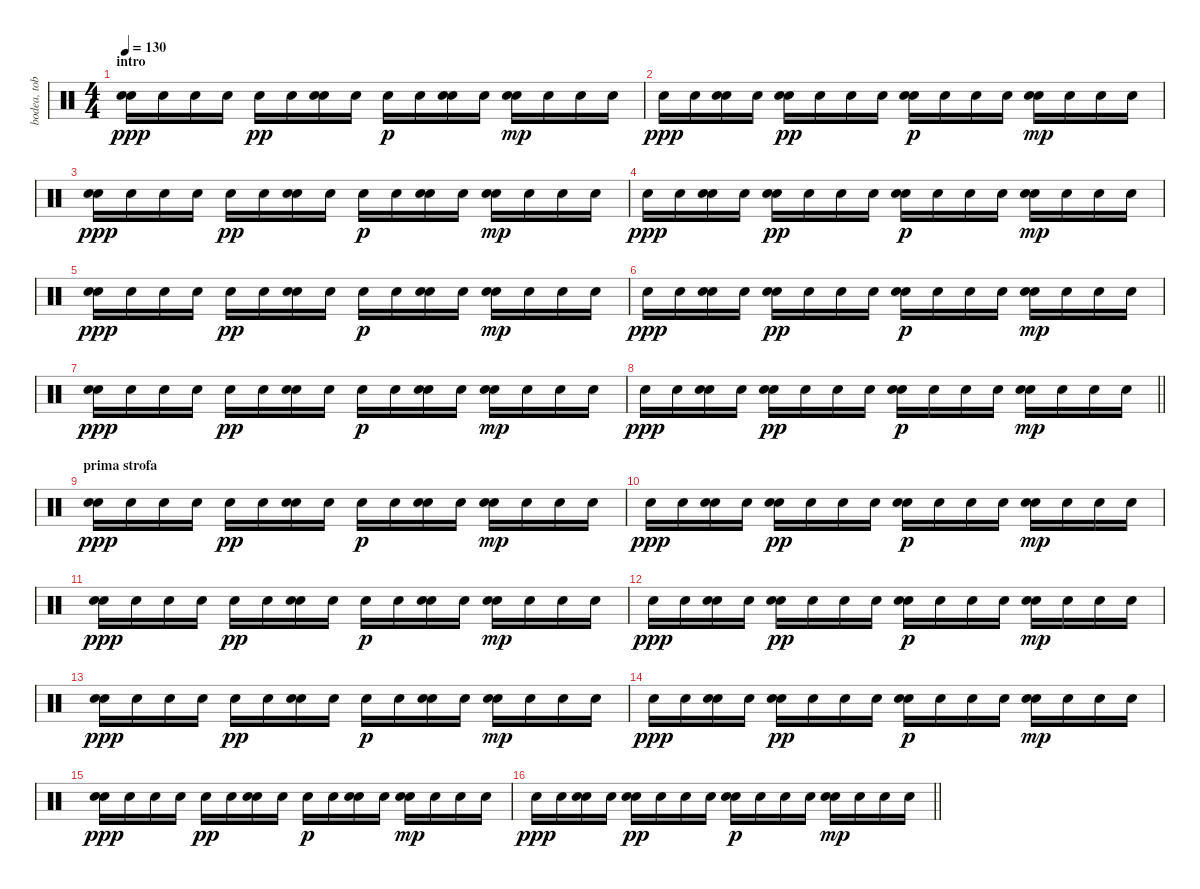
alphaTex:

\track ("bodea, tobe" "bodea, tob") {instrument percussion}
\staff {score}
\articulation defaults
\ts (4 4)
\section ("" "intro")
\tempo 130
\clef neutral
\ks c
("Electric Snare (hit)" "Electric Snare (hit)").16{dy ppp} "Electric Snare (hit)".16 "Electric Snare (hit)".16 "Electric Snare (hit)".16 "Electric Snare (hit)".16{dy pp} "Electric Snare (hit)".16 ("Electric Snare (hit)" "Electric Snare (hit)").16 "Electric Snare (hit)".16 "Electric Snare (hit)".16{dy p} "Electric Snare (hit)".16 ("Electric Snare (hit)" "Electric Snare (hit)").16 "Electric Snare (hit)".16 ("Electric Snare (hit)" "Electric Snare (hit)").16{dy mp} "Electric Snare (hit)".16 "Electric Snare (hit)".16 "Electric Snare (hit)".16 |
"Electric Snare (hit)".16{dy ppp} "Electric Snare (hit)".16 ("Electric Snare (hit)" "Electric Snare (hit)").16 "Electric Snare (hit)".16 ("Electric Snare (hit)" "Electric Snare (hit)").16{dy pp} "Electric Snare (hit)".16 "Electric Snare (hit)".16 "Electric Snare (hit)".16 ("Electric Snare (hit)" "Electric Snare (hit)").16{dy p} "Electric Snare (hit)".16 "Electric Snare (hit)".16 "Electric Snare (hit)".16 ("Electric Snare (hit)" "Electric Snare (hit)").16{dy mp} "Electric Snare (hit)".16 "Electric Snare (hit)".16 "Electric Snare (hit)".16 |
("Electric Snare (hit)" "Electric Snare (hit)").16{dy ppp} "Electric Snare (hit)".16 "Electric Snare (hit)".16 "Electric Snare (hit)".16 "Electric Snare (hit)".16{dy pp} "Electric Snare (hit)".16 ("Electric Snare (hit)" "Electric Snare (hit)").16 "Electric Snare (hit)".16 "Electric Snare (hit)".16{dy p} "Electric Snare (hit)".16 ("Electric Snare (hit)" "Electric Snare (hit)").16 "Electric Snare (hit)".16 ("Electric Snare (hit)" "Electric Snare (hit)").16{dy mp} "Electric Snare (hit)".16 "Electric Snare (hit)".16 "Electric Snare (hit)".16 |
"Electric Snare (hit)".16{dy ppp} "Electric Snare (hit)".16 ("Electric Snare (hit)" "Electric Snare (hit)").16 "Electric Snare (hit)".16 ("Electric Snare (hit)" "Electric Snare (hit)").16{dy pp} "Electric Snare (hit)".16 "Electric Snare (hit)".16 "Electric Snare (hit)".16 ("Electric Snare (hit)" "Electric Snare (hit)").16{dy p} "Electric Snare (hit)".16 "Electric Snare (hit)".16 "Snare (hit)".16 ("Electric Snare (hit)" "Electric Snare (hit)").16{dy mp} "Electric Snare (hit)".16 "Electric Snare (hit)".16 "Electric Snare (hit)".16 |
("Electric Snare (hit)" "Electric Snare (hit)").16{dy ppp} "Electric Snare (hit)".16 "Electric Snare (hit)".16 "Electric Snare (hit)".16 "Electric Snare (hit)".16{dy pp} "Electric Snare (hit)".16 ("Electric Snare (hit)" "Electric Snare (hit)").16 "Electric Snare (hit)".16 "Electric Snare (hit)".16{dy p} "Electric Snare (hit)".16 ("Electric Snare (hit)" "Electric Snare (hit)").16 "Electric Snare (hit)".16 ("Electric Snare (hit)" "Electric Snare (hit)").16{dy mp} "Electric Snare (hit)".16 "Electric Snare (hit)".16 "Electric Snare (hit)".16 |
"Electric Snare (hit)".16{dy ppp} "Electric Snare (hit)".16 ("Electric Snare (hit)" "Electric Snare (hit)").16 "Electric Snare (hit)".16 ("Electric Snare (hit)" "Electric Snare (hit)").16{dy pp} "Electric Snare (hit)".16 "Electric Snare (hit)".16 "Electric Snare (hit)".16 ("Electric Snare (hit)" "Electric Snare (hit)").16{dy p} "Electric Snare (hit)".16 "Electric Snare (hit)".16 "Snare (hit)".16 ("Electric Snare (hit)" "Electric Snare (hit)").16{dy mp} "Electric Snare (hit)".16 "Electric Snare (hit)".16 "Electric Snare (hit)".16 |
("Electric Snare (hit)" "Electric Snare (hit)").16{dy ppp} "Electric Snare (hit)".16 "Electric Snare (hit)".16 "Electric Snare (hit)".16 "Electric Snare (hit)".16{dy pp} "Electric Snare (hit)".16 ("Electric Snare (hit)" "Electric Snare (hit)").16 "Electric Snare (hit)".16 "Electric Snare (hit)".16{dy p} "Electric Snare (hit)".16 ("Electric Snare (hit)" "Electric Snare (hit)").16 "Electric Snare (hit)".16 ("Electric Snare (hit)" "Electric Snare (hit)").16{dy mp} "Electric Snare (hit)".16 "Electric Snare (hit)".16 "Electric Snare (hit)".16 |
\barLineRight lightlight "Electric Snare (hit)".16{dy ppp} "Electric Snare (hit)".16
("Electric Snare (hit)" "Electric Snare (hit)").16 "Electric Snare (hit)".16 ("Electric Snare (hit)" "Electric Snare (hit)").16{dy pp} "Electric Snare (hit)".16 "Electric Snare (hit)".16 "Electric Snare (hit)".16 ("Electric Snare (hit)" "Electric Snare (hit)").16{dy p} "Electric Snare (hit)".16 "Electric Snare (hit)".16 "Snare (hit)".16 ("Electric Snare (hit)" "Electric Snare (hit)").16{dy mp} "Electric Snare (hit)".16 "Electric Snare (hit)".16 "Electric Snare (hit)".16 |
\section ("" "prima strofa")
("Electric Snare (hit)" "Electric Snare (hit)").16{dy ppp} "Electric Snare (hit)".16 "Electric Snare (hit)".16 "Electric Snare (hit)".16 "Electric Snare (hit)".16{dy pp} "Electric Snare (hit)".16 ("Electric Snare (hit)" "Electric Snare (hit)").16 "Electric Snare (hit)".16 "Electric Snare (hit)".16{dy p} "Electric Snare (hit)".16 ("Electric Snare (hit)" "Electric Snare (hit)").16 "Electric Snare (hit)".16 ("Electric Snare (hit)" "Electric Snare (hit)").16{dy mp} "Electric Snare (hit)".16 "Electric Snare (hit)".16 "Electric Snare (hit)".16 |
"Electric Snare (hit)".16{dy ppp} "Electric Snare (hit)".16 ("Electric Snare (hit)" "Electric Snare (hit)").16 "Electric Snare (hit)".16 ("Electric Snare (hit)" "Electric Snare (hit)").16{dy pp} "Electric Snare (hit)".16 "Electric Snare (hit)".16 "Electric Snare (hit)".16 ("Electric Snare (hit)" "Electric Snare (hit)").16{dy p} "Electric Snare (hit)".16 "Electric Snare (hit)".16 "Snare (hit)".16 ("Electric Snare (hit)" "Electric Snare (hit)").16{dy mp} "Electric Snare (hit)".16 "Electric Snare (hit)".16 "Electric Snare (hit)".16 |
("Electric Snare (hit)" "Electric Snare (hit)").16{dy ppp} "Electric Snare (hit)".16 "Electric Snare (hit)".16 "Electric Snare (hit)".16 "Electric Snare (hit)".16{dy pp} "Electric Snare (hit)".16 ("Electric Snare (hit)" "Electric Snare (hit)").16 "Electric Snare (hit)".16 "Electric Snare (hit)".16{dy p} "Electric Snare (hit)".16 ("Electric Snare (hit)" "Electric Snare (hit)").16 "Electric Snare (hit)".16 ("Electric Snare (hit)" "Electric Snare (hit)").16{dy mp} "Electric Snare (hit)".16 "Electric Snare (hit)".16 "Electric Snare (hit)".16 |
"Electric Snare (hit)".16{dy ppp} "Electric Snare (hit)".16 ("Electric Snare (hit)" "Electric Snare (hit)").16 "Electric Snare (hit)".16 ("Electric Snare (hit)" "Electric Snare (hit)").16{dy pp} "Electric Snare (hit)".16 "Electric Snare (hit)".16 "Electric Snare (hit)".16 ("Electric Snare (hit)" "Electric Snare (hit)").16{dy p} "Electric Snare (hit)".16 "Electric Snare (hit)".16 "Snare (hit)".16 ("Electric Snare (hit)" "Electric Snare (hit)").16{dy mp} "Electric Snare (hit)".16 "Electric Snare (hit)".16 "Electric Snare (hit)".16 |
("Electric Snare (hit)" "Electric Snare (hit)").16{dy ppp} "Electric Snare (hit)".16 "Electric Snare (hit)".16 "Electric Snare (hit)".16 "Electric Snare (hit)".16{dy pp} "Electric Snare (hit)".16 ("Electric Snare (hit)" "Electric Snare (hit)").16 "Electric Snare (hit)".16 "Electric Snare (hit)".16{dy p} "Electric Snare (hit)".16 ("Electric Snare (hit)" "Electric Snare (hit)").16 "Electric Snare (hit)".16 ("Electric Snare (hit)" "Electric Snare (hit)").16{dy mp} "Electric Snare (hit)".16 "Electric Snare (hit)".16 "Electric Snare (hit)".16 |
"Electric Snare (hit)".16{dy ppp} "Electric Snare (hit)".16 ("Electric Snare (hit)" "Electric Snare (hit)").16 "Electric Snare (hit)".16 ("Electric Snare (hit)" "Electric Snare (hit)").16{dy pp} "Electric Snare (hit)".16 "Electric Snare (hit)".16 "Electric Snare (hit)".16 ("Electric Snare (hit)" "Electric Snare (hit)").16{dy p} "Electric Snare (hit)".16 "Electric Snare (hit)".16 "Snare (hit)".16 ("Electric Snare (hit)" "Electric Snare (hit)").16{dy mp} "Electric Snare (hit)".16 "Electric Snare (hit)".16 "Electric Snare (hit)".16 |
("Electric Snare (hit)" "Electric Snare (hit)").16{dy ppp} "Electric Snare (hit)".16 "Electric Snare (hit)".16 "Electric Snare (hit)".16 "Electric Snare (hit)".16{dy pp} "Electric Snare (hit)".16 ("Electric Snare (hit)" "Electric Snare (hit)").16 "Electric Snare (hit)".16 "Electric Snare (hit)".16{dy p} "Electric Snare (hit)".16 ("Electric Snare (hit)" "Electric Snare (hit)").16 "Electric Snare (hit)".16 ("Electric Snare (hit)" "Electric Snare (hit)").16{dy mp} "Electric Snare (hit)".16 "Electric Snare (hit)".16 "Electric Snare (hit)".16 |
\barLineRight lightlight "Electric Snare (hit)".16{dy ppp} "Electric Snare (hit)".16
("Electric Snare (hit)" "Electric Snare (hit)").16 "Electric Snare (hit)".16 ("Electric Snare (hit)" "Electric Snare (hit)").16{dy pp} "Electric Snare (hit)".16 "Electric Snare (hit)".16 "Electric Snare (hit)".16 ("Electric Snare (hit)" "Electric Snare (hit)").16{dy p} "Electric Snare (hit)".16 "Electric Snare (hit)".16 "Snare (hit)".16 ("Electric Snare (hit)" "Electric Snare (hit)").16{dy mp} "Electric Snare (hit)".16 "Electric Snare (hit)".16 "Electric Snare (hit)".16
